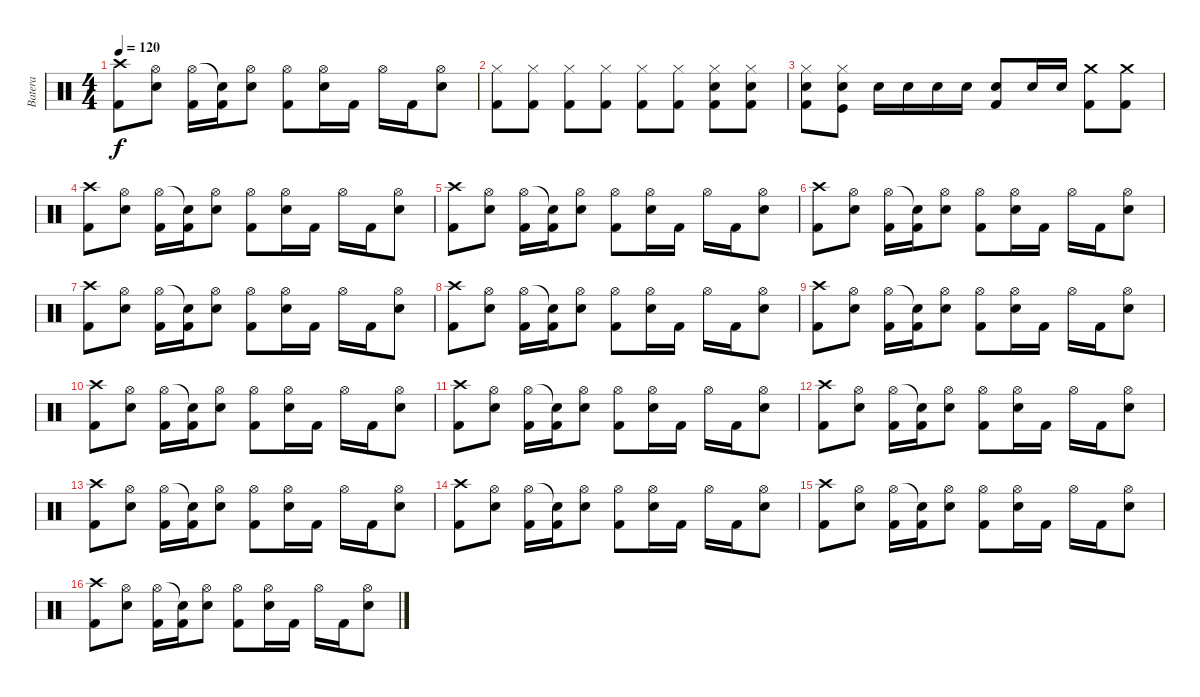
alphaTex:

\track ("Batera" "Batera") {instrument percussion}
\staff {score}
\articulation defaults
\ts (4 4)
\tempo 120
\clef neutral
\ks c
("Crash high (hit)" "Kick (hit) 2").8{dy f} ("Hi-Hat (open)" "Electric Snare (hit)").8 ("Hi-Hat (open)" "Kick (hit) 2").16 ("Snare (hit)"{t} "Kick (hit) 2").16 ("Hi-Hat (open)" "Electric Snare (hit)").8 ("Hi-Hat (open)" "Kick (hit) 2").8 ("Hi-Hat (open)" "Electric Snare (hit)").16 "Kick (hit) 2".16 "Hi-Hat (open)".16 "Kick (hit) 2".16 ("Hi-Hat (open)" "Electric Snare (hit)").8 |
("Kick (hit) 2" "Hi-Hat (closed)").8 ("Kick (hit) 2" "Hi-Hat (closed)").8 ("Kick (hit) 2" "Hi-Hat (closed)").8 ("Kick (hit) 2" "Hi-Hat (closed)").8 ("Kick (hit) 2" "Hi-Hat (closed)").8 ("Kick (hit) 2" "Hi-Hat (closed)").8 ("Kick (hit) 2" "Snare (hit) 2" "Hi-Hat (closed)").8 ("Kick (hit) 2" "Snare (hit) 2" "Hi-Hat (closed)").8 |
("Kick (hit) 2" "Snare (hit) 2" "Hi-Hat (closed)").8 ("Kick (hit)" "Snare (hit) 2" "Hi-Hat (closed)").8 "Snare (hit) 2".16 "Snare (hit) 2".16 "Snare (hit) 2".16 "Snare (hit) 2".16 ("Kick (hit) 2" "Snare (hit) 2").8 "Snare (hit) 2".16 "Snare (hit) 2".16 ("Kick (hit) 2" "Crash medium (hit)").8 ("Kick (hit) 2" "Crash medium (hit)").8 |
("Crash high (hit)" "Kick (hit) 2").8 ("Hi-Hat (open)" "Electric Snare (hit)").8 ("Hi-Hat (open)" "Kick (hit) 2").16 ("Snare (hit)"{t} "Kick (hit) 2").16 ("Hi-Hat (open)" "Electric Snare (hit)").8 ("Hi-Hat (open)" "Kick (hit) 2").8 ("Hi-Hat (open)" "Electric Snare (hit)").16 "Kick (hit) 2".16 "Hi-Hat (open)".16 "Kick (hit) 2".16 ("Hi-Hat (open)" "Electric Snare (hit)").8 |
("Crash high (hit)" "Kick (hit) 2").8 ("Hi-Hat (open)" "Electric Snare (hit)").8 ("Hi-Hat (open)" "Kick (hit) 2").16 ("Snare (hit)"{t} "Kick (hit) 2").16 ("Hi-Hat (open)" "Electric Snare (hit)").8 ("Hi-Hat (open)" "Kick (hit) 2").8 ("Hi-Hat (open)" "Electric Snare (hit)").16 "Kick (hit) 2".16 "Hi-Hat (open)".16 "Kick (hit) 2".16 ("Hi-Hat (open)" "Electric Snare (hit)").8 |
("Crash high (hit)" "Kick (hit) 2").8 ("Hi-Hat (open)" "Electric Snare (hit)").8 ("Hi-Hat (open)" "Kick (hit) 2").16 ("Snare (hit)"{t} "Kick (hit) 2").16 ("Hi-Hat (open)" "Electric Snare (hit)").8 ("Hi-Hat (open)" "Kick (hit) 2").8 ("Hi-Hat (open)" "Electric Snare (hit)").16 "Kick (hit) 2".16 "Hi-Hat (open)".16 "Kick (hit) 2".16 ("Hi-Hat (open)" "Electric Snare (hit)").8 |
("Crash high (hit)" "Kick (hit) 2").8 ("Hi-Hat (open)" "Electric Snare (hit)").8 ("Hi-Hat (open)" "Kick (hit) 2").16 ("Snare (hit)"{t} "Kick (hit) 2").16 ("Hi-Hat (open)" "Electric Snare (hit)").8 ("Hi-Hat (open)" "Kick (hit) 2").8 ("Hi-Hat (open)" "Electric Snare (hit)").16 "Kick (hit) 2".16 "Hi-Hat (open)".16 "Kick (hit) 2".16 ("Hi-Hat (open)" "Electric Snare (hit)").8 |
("Crash high (hit)" "Kick (hit) 2").8 ("Hi-Hat (open)" "Electric Snare (hit)").8 ("Hi-Hat (open)" "Kick (hit) 2").16 ("Snare (hit)"{t} "Kick (hit) 2").16 ("Hi-Hat (open)" "Electric Snare (hit)").8 ("Hi-Hat (open)" "Kick (hit) 2").8 ("Hi-Hat (open)" "Electric Snare (hit)").16 "Kick (hit) 2".16 "Hi-Hat (open)".16 "Kick (hit) 2".16 ("Hi-Hat (open)" "Electric Snare (hit)").8 |
("Crash high (hit)" "Kick (hit) 2").8 ("Hi-Hat (open)" "Electric Snare (hit)").8 ("Hi-Hat (open)" "Kick (hit) 2").16 ("Snare (hit)"{t} "Kick (hit) 2").16 ("Hi-Hat (open)" "Electric Snare (hit)").8 ("Hi-Hat (open)" "Kick (hit) 2").8 ("Hi-Hat (open)" "Electric Snare (hit)").16 "Kick (hit) 2".16 "Hi-Hat (open)".16 "Kick (hit) 2".16 ("Hi-Hat (open)" "Electric Snare (hit)").8 |
("Crash high (hit)" "Kick (hit) 2").8 ("Hi-Hat (open)" "Electric Snare (hit)").8 ("Hi-Hat (open)" "Kick (hit) 2").16 ("Snare (hit)"{t} "Kick (hit) 2").16 ("Hi-Hat (open)" "Electric Snare (hit)").8 ("Hi-Hat (open)" "Kick (hit) 2").8 ("Hi-Hat (open)" "Electric Snare (hit)").16 "Kick (hit) 2".16 "Hi-Hat (open)".16 "Kick (hit) 2".16 ("Hi-Hat (open)" "Electric Snare (hit)").8 |
("Crash high (hit)" "Kick (hit) 2").8 ("Hi-Hat (open)" "Electric Snare (hit)").8 ("Hi-Hat (open)" "Kick (hit) 2").16 ("Snare (hit)"{t} "Kick (hit) 2").16 ("Hi-Hat (open)" "Electric Snare (hit)").8 ("Hi-Hat (open)" "Kick (hit) 2").8 ("Hi-Hat (open)" "Electric Snare (hit)").16 "Kick (hit) 2".16 "Hi-Hat (open)".16 "Kick (hit) 2".16 ("Hi-Hat (open)" "Electric Snare (hit)").8 |
("Crash high (hit)" "Kick (hit) 2").8 ("Hi-Hat (open)" "Electric Snare (hit)").8 ("Hi-Hat (open)" "Kick (hit) 2").16 ("Snare (hit)"{t} "Kick (hit) 2").16 ("Hi-Hat (open)" "Electric Snare (hit)").8 ("Hi-Hat (open)" "Kick (hit) 2").8 ("Hi-Hat (open)" "Electric Snare (hit)").16 "Kick (hit) 2".16 "Hi-Hat (open)".16 "Kick (hit) 2".16 ("Hi-Hat (open)" "Electric Snare (hit)").8 |
("Crash high (hit)" "Kick (hit) 2").8 ("Hi-Hat (open)" "Electric Snare (hit)").8 ("Hi-Hat (open)" "Kick (hit) 2").16 ("Snare (hit)"{t} "Kick (hit) 2").16 ("Hi-Hat (open)" "Electric Snare (hit)").8 ("Hi-Hat (open)" "Kick (hit) 2").8 ("Hi-Hat (open)" "Electric Snare (hit)").16 "Kick (hit) 2".16 "Hi-Hat (open)".16 "Kick (hit) 2".16 ("Hi-Hat (open)" "Electric Snare (hit)").8 |
("Crash high (hit)" "Kick (hit) 2").8 ("Hi-Hat (open)" "Electric Snare (hit)").8 ("Hi-Hat (open)" "Kick (hit) 2").16 ("Snare (hit)"{t} "Kick (hit) 2").16 ("Hi-Hat (open)" "Electric Snare (hit)").8 ("Hi-Hat (open)" "Kick (hit) 2").8 ("Hi-Hat (open)" "Electric Snare (hit)").16 "Kick (hit) 2".16 "Hi-Hat (open)".16 "Kick (hit) 2".16 ("Hi-Hat (open)" "Electric Snare (hit)").8 |
("Crash high (hit)" "Kick (hit) 2").8 ("Hi-Hat (open)" "Electric Snare (hit)").8 ("Hi-Hat (open)" "Kick (hit) 2").16 ("Snare (hit)"{t} "Kick (hit) 2").16 ("Hi-Hat (open)" "Electric Snare (hit)").8 ("Hi-Hat (open)" "Kick (hit) 2").8 ("Hi-Hat (open)" "Electric Snare (hit)").16 "Kick (hit) 2".16 "Hi-Hat (open)".16 "Kick (hit) 2".16 ("Hi-Hat (open)" "Electric Snare (hit)").8 |
("Crash high (hit)" "Kick (hit) 2").8 ("Hi-Hat (open)" "Electric Snare (hit)").8 ("Hi-Hat (open)" "Kick (hit) 2").16 ("Snare (hit)"{t} "Kick (hit) 2").16 ("Hi-Hat (open)" "Electric Snare (hit)").8 ("Hi-Hat (open)" "Kick (hit) 2").8 ("Hi-Hat (open)" "Electric Snare (hit)").16 "Kick (hit) 2".16 "Hi-Hat (open)".16 "Kick (hit) 2".16 ("Hi-Hat (open)" "Electric Snare (hit)").8
